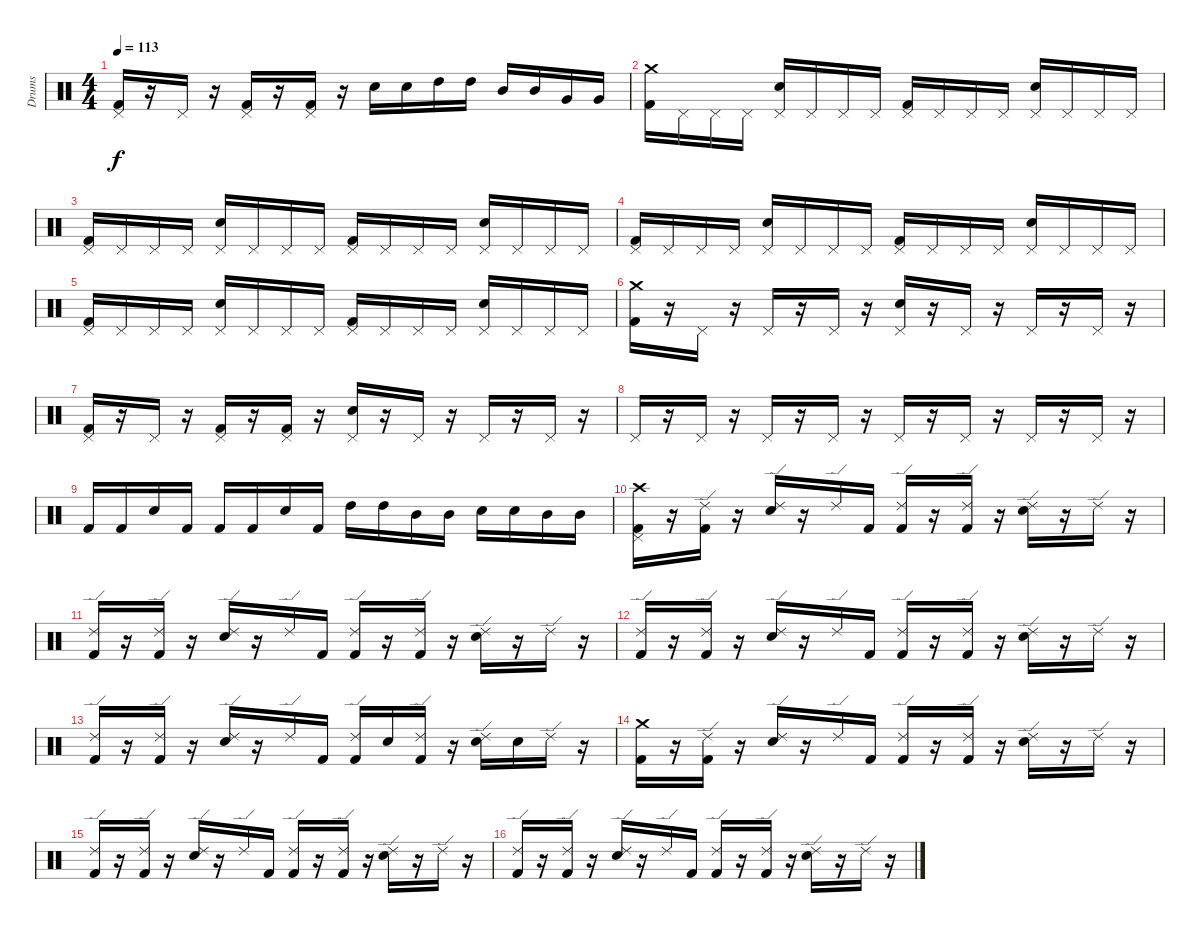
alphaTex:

\track ("Drums" "Drums") {instrument percussion}
\staff {score}
\articulation defaults
\ts (4 4)
\tempo 113
\clef neutral
\ks c
("Pedal Hi-Hat (hit)" "Kick (hit) 2").16{dy f} r.16 "Pedal Hi-Hat (hit)".16 r.16 ("Pedal Hi-Hat (hit)" "Kick (hit) 2").16 r.16 ("Pedal Hi-Hat (hit)" "Kick (hit) 2").16 r.16 "Snare (hit) 2".16 "Snare (hit) 2".16 "High Tom (hit)".16 "High Tom (hit)".16 "Mid Tom (hit)".16 "Mid Tom (hit)".16 "Very Low Tom (hit)".16 "Very Low Tom (hit)".16 |
("Crash medium (hit)" "Kick (hit) 2").16 "Pedal Hi-Hat (hit)".16 "Pedal Hi-Hat (hit)".16 "Pedal Hi-Hat (hit)".16 ("Pedal Hi-Hat (hit)" "Snare (hit) 2").16 "Pedal Hi-Hat (hit)".16 "Pedal Hi-Hat (hit)".16 "Pedal Hi-Hat (hit)".16 ("Pedal Hi-Hat (hit)" "Kick (hit) 2").16 "Pedal Hi-Hat (hit)".16 "Pedal Hi-Hat (hit)".16 "Pedal Hi-Hat (hit)".16 ("Pedal Hi-Hat (hit)" "Snare (hit) 2").16 "Pedal Hi-Hat (hit)".16 "Pedal Hi-Hat (hit)".16 "Pedal Hi-Hat (hit)".16 |
("Pedal Hi-Hat (hit)" "Kick (hit) 2").16 "Pedal Hi-Hat (hit)".16 "Pedal Hi-Hat (hit)".16 "Pedal Hi-Hat (hit)".16 ("Pedal Hi-Hat (hit)" "Snare (hit) 2").16 "Pedal Hi-Hat (hit)".16 "Pedal Hi-Hat (hit)".16 "Pedal Hi-Hat (hit)".16 ("Pedal Hi-Hat (hit)" "Kick (hit) 2").16 "Pedal Hi-Hat (hit)".16 "Pedal Hi-Hat (hit)".16 "Pedal Hi-Hat (hit)".16 ("Pedal Hi-Hat (hit)" "Snare (hit) 2").16 "Pedal Hi-Hat (hit)".16 "Pedal Hi-Hat (hit)".16 "Pedal Hi-Hat (hit)".16 |
("Pedal Hi-Hat (hit)" "Kick (hit) 2").16 "Pedal Hi-Hat (hit)".16 "Pedal Hi-Hat (hit)".16 "Pedal Hi-Hat (hit)".16 ("Pedal Hi-Hat (hit)" "Snare (hit) 2").16 "Pedal Hi-Hat (hit)".16 "Pedal Hi-Hat (hit)".16 "Pedal Hi-Hat (hit)".16 ("Pedal Hi-Hat (hit)" "Kick (hit) 2").16 "Pedal Hi-Hat (hit)".16 "Pedal Hi-Hat (hit)".16 "Pedal Hi-Hat (hit)".16 ("Pedal Hi-Hat (hit)" "Snare (hit) 2").16 "Pedal Hi-Hat (hit)".16 "Pedal Hi-Hat (hit)".16 "Pedal Hi-Hat (hit)".16 |
("Pedal Hi-Hat (hit)" "Kick (hit) 2").16 "Pedal Hi-Hat (hit)".16 "Pedal Hi-Hat (hit)".16 "Pedal Hi-Hat (hit)".16 ("Pedal Hi-Hat (hit)" "Snare (hit) 2").16 "Pedal Hi-Hat (hit)".16 "Pedal Hi-Hat (hit)".16 "Pedal Hi-Hat (hit)".16 ("Pedal Hi-Hat (hit)" "Kick (hit) 2").16 "Pedal Hi-Hat (hit)".16 "Pedal Hi-Hat (hit)".16 "Pedal Hi-Hat (hit)".16 ("Pedal Hi-Hat (hit)" "Snare (hit) 2").16 "Pedal Hi-Hat (hit)".16 "Pedal Hi-Hat (hit)".16 "Pedal Hi-Hat (hit)".16 |
("Crash medium (hit)" "Kick (hit) 2").16 r.16 "Pedal Hi-Hat (hit)".16 r.16 "Pedal Hi-Hat (hit)".16 r.16 "Pedal Hi-Hat (hit)".16 r.16 ("Pedal Hi-Hat (hit)" "Snare (hit) 2").16 r.16 "Pedal Hi-Hat (hit)".16 r.16 "Pedal Hi-Hat (hit)".16 r.16 "Pedal Hi-Hat (hit)".16 r.16 |
("Pedal Hi-Hat (hit)" "Kick (hit) 2").16 r.16 "Pedal Hi-Hat (hit)".16 r.16 ("Pedal Hi-Hat (hit)" "Kick (hit) 2").16 r.16 ("Pedal Hi-Hat (hit)" "Kick (hit) 2").16 r.16 ("Pedal Hi-Hat (hit)" "Snare (hit) 2").16 r.16 "Pedal Hi-Hat (hit)".16 r.16 "Pedal Hi-Hat (hit)".16 r.16 "Pedal Hi-Hat (hit)".16 r.16 |
"Pedal Hi-Hat (hit)".16 r.16 "Pedal Hi-Hat (hit)".16 r.16 "Pedal Hi-Hat (hit)".16 r.16 "Pedal Hi-Hat (hit)".16 r.16 "Pedal Hi-Hat (hit)".16 r.16 "Pedal Hi-Hat (hit)".16 r.16 "Pedal Hi-Hat (hit)".16 r.16 "Pedal Hi-Hat (hit)".16 r.16 |
"Kick (hit) 2".16 "Kick (hit) 2".16 "Snare (hit) 2".16 "Kick (hit) 2".16 "Kick (hit) 2".16 "Kick (hit) 2".16 "Snare (hit) 2".16 "Kick (hit) 2".16 "High Tom (hit)".16 "High Tom (hit)".16 "Mid Tom (hit)".16 "Mid Tom (hit)".16 "Snare (hit) 2".16 "Snare (hit) 2".16 "Mid Tom (hit)".16 "Mid Tom (hit)".16 |
("Pedal Hi-Hat (hit)" "Crash high (hit)" "Kick (hit) 2").16 r.16 ("Ride (edge) 2" "Kick (hit) 2").16 r.16 ("Ride (edge) 2" "Snare (hit) 2").16 r.16 "Ride (edge) 2".16 "Kick (hit) 2".16 ("Ride (edge) 2" "Kick (hit) 2").16 r.16 ("Ride (edge) 2" "Kick (hit) 2").16 r.16 ("Ride (edge) 2" "Snare (hit) 2").16 r.16 "Ride (edge) 2".16 r.16 |
("Ride (edge) 2" "Kick (hit) 2").16 r.16 ("Ride (edge) 2" "Kick (hit) 2").16 r.16 ("Ride (edge) 2" "Snare (hit) 2").16 r.16 "Ride (edge) 2".16 "Kick (hit) 2".16 ("Ride (edge) 2" "Kick (hit) 2").16 r.16 ("Ride (edge) 2" "Kick (hit) 2").16 r.16 ("Ride (edge) 2" "Snare (hit) 2").16 r.16 "Ride (edge) 2".16 r.16 |
("Ride (edge) 2" "Kick (hit) 2").16 r.16 ("Ride (edge) 2" "Kick (hit) 2").16 r.16 ("Ride (edge) 2" "Snare (hit) 2").16 r.16 "Ride (edge) 2".16 "Kick (hit) 2".16 ("Ride (edge) 2" "Kick (hit) 2").16 r.16 ("Ride (edge) 2" "Kick (hit) 2").16 r.16 ("Ride (edge) 2" "Snare (hit) 2").16 r.16 "Ride (edge) 2".16 r.16 |
("Ride (edge) 2" "Kick (hit) 2").16 r.16 ("Ride (edge) 2" "Kick (hit) 2").16 r.16 ("Ride (edge) 2" "Snare (hit) 2").16 r.16 "Ride (edge) 2".16 "Kick (hit) 2".16 ("Ride (edge) 2" "Kick (hit) 2").16 "Snare (hit) 2".16 ("Ride (edge) 2" "Kick (hit) 2").16 r.16 ("Ride (edge) 2" "Snare (hit) 2").16 "Snare (hit) 2".16 "Ride (edge) 2".16 r.16 |
("Crash medium (hit)" "Kick (hit) 2").16 r.16 ("Ride (edge) 2" "Kick (hit) 2").16 r.16 ("Ride (edge) 2" "Snare (hit) 2").16 r.16 "Ride (edge) 2".16 "Kick (hit) 2".16 ("Ride (edge) 2" "Kick (hit) 2").16 r.16 ("Ride (edge) 2" "Kick (hit) 2").16 r.16 ("Ride (edge) 2" "Snare (hit) 2").16 r.16 "Ride (edge) 2".16 r.16 |
("Ride (edge) 2" "Kick (hit) 2").16 r.16 ("Ride (edge) 2" "Kick (hit) 2").16 r.16 ("Ride (edge) 2" "Snare (hit) 2").16 r.16 "Ride (edge) 2".16 "Kick (hit) 2".16 ("Ride (edge) 2" "Kick (hit) 2").16 r.16 ("Ride (edge) 2" "Kick (hit) 2").16 r.16 ("Ride (edge) 2" "Snare (hit) 2").16 r.16 "Ride (edge) 2".16 r.16 |
("Ride (edge) 2" "Kick (hit) 2").16 r.16 ("Ride (edge) 2" "Kick (hit) 2").16 r.16 ("Ride (edge) 2" "Snare (hit) 2").16 r.16 "Ride (edge) 2".16 "Kick (hit) 2".16 ("Ride (edge) 2" "Kick (hit) 2").16 r.16 ("Ride (edge) 2" "Kick (hit) 2").16 r.16 ("Ride (edge) 2" "Snare (hit) 2").16 r.16 "Ride (edge) 2".16 r.16
